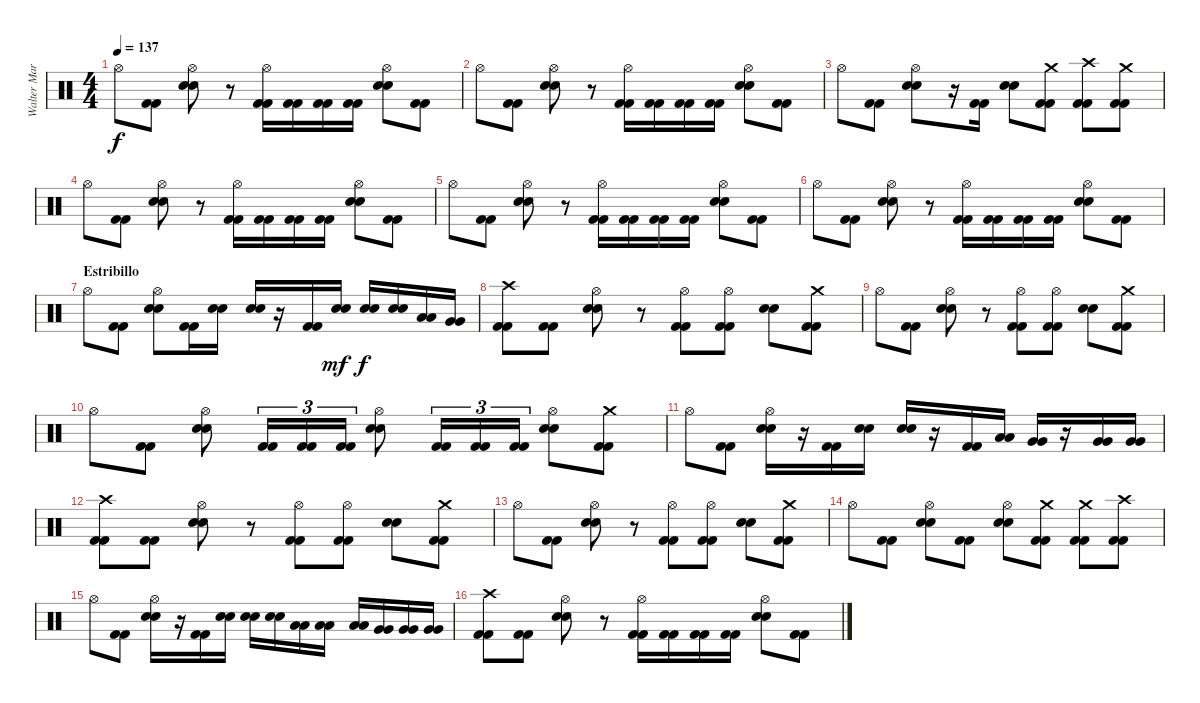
\track ("Walter Martinez (bateria)" "Walter Mar") {instrument percussion}
\staff {score}
\articulation defaults
\ts (4 4)
\tempo 137
\clef neutral
\ks c "Hi-Hat (open)".8{dy f}
("Kick (hit) 2" "Kick (hit) 2").8 ("Hi-Hat (open)" "Snare (hit) 2" "Snare (hit) 2").8 r.8 ("Hi-Hat (open)" "Kick (hit) 2" "Kick (hit) 2").16 ("Kick (hit) 2" "Kick (hit) 2").16 ("Kick (hit) 2" "Kick (hit) 2").16 ("Kick (hit) 2" "Kick (hit) 2").16 ("Hi-Hat (open)" "Snare (hit) 2" "Snare (hit) 2").8 ("Kick (hit) 2" "Kick (hit) 2").8 |
"Hi-Hat (open)".8 ("Kick (hit) 2" "Kick (hit) 2").8 ("Hi-Hat (open)" "Snare (hit) 2" "Snare (hit) 2").8 r.8 ("Hi-Hat (open)" "Kick (hit) 2" "Kick (hit) 2").16 ("Kick (hit) 2" "Kick (hit) 2").16 ("Kick (hit) 2" "Kick (hit) 2").16 ("Kick (hit) 2" "Kick (hit) 2").16 ("Hi-Hat (open)" "Snare (hit) 2" "Snare (hit) 2").8 ("Kick (hit) 2" "Kick (hit) 2").8 |
"Hi-Hat (open)".8 ("Kick (hit) 2" "Kick (hit) 2").8 ("Hi-Hat (open)" "Snare (hit) 2" "Snare (hit) 2").8 r.16 ("Kick (hit) 2" "Kick (hit) 2").16 ("Snare (hit) 2" "Snare (hit) 2").8 ("Crash medium (hit)" "Kick (hit) 2" "Kick (hit) 2").8 ("Crash high (hit)" "Kick (hit) 2" "Kick (hit) 2").8 ("Crash medium (hit)" "Kick (hit) 2" "Kick (hit) 2").8 |
"Hi-Hat (open)".8 ("Kick (hit) 2" "Kick (hit) 2").8 ("Hi-Hat (open)" "Snare (hit) 2" "Snare (hit) 2").8 r.8 ("Hi-Hat (open)" "Kick (hit) 2" "Kick (hit) 2").16 ("Kick (hit) 2" "Kick (hit) 2").16 ("Kick (hit) 2" "Kick (hit) 2").16 ("Kick (hit) 2" "Kick (hit) 2").16 ("Hi-Hat (open)" "Snare (hit) 2" "Snare (hit) 2").8 ("Kick (hit) 2" "Kick (hit) 2").8 |
"Hi-Hat (open)".8 ("Kick (hit) 2" "Kick (hit) 2").8 ("Hi-Hat (open)" "Snare (hit) 2" "Snare (hit) 2").8 r.8 ("Hi-Hat (open)" "Kick (hit) 2" "Kick (hit) 2").16 ("Kick (hit) 2" "Kick (hit) 2").16 ("Kick (hit) 2" "Kick (hit) 2").16 ("Kick (hit) 2" "Kick (hit) 2").16 ("Hi-Hat (open)" "Snare (hit) 2" "Snare (hit) 2").8 ("Kick (hit) 2" "Kick (hit) 2").8 |
"Hi-Hat (open)".8 ("Kick (hit) 2" "Kick (hit) 2").8 ("Hi-Hat (open)" "Snare (hit) 2" "Snare (hit) 2").8 r.8 ("Hi-Hat (open)" "Kick (hit) 2" "Kick (hit) 2").16 ("Kick (hit) 2" "Kick (hit) 2").16 ("Kick (hit) 2" "Kick (hit) 2").16 ("Kick (hit) 2" "Kick (hit) 2").16 ("Hi-Hat (open)" "Snare (hit) 2" "Snare (hit) 2").8 ("Kick (hit) 2" "Kick (hit) 2").8 |
\section ("" "Estribillo")
"Hi-Hat (open)".8 ("Kick (hit) 2" "Kick (hit) 2").8 ("Hi-Hat (open)" "Snare (hit) 2" "Snare (hit) 2").8 ("Kick (hit) 2" "Kick (hit) 2").16 ("Snare (hit) 2" "Snare (hit) 2").16 ("Snare (hit) 2" "Snare (hit) 2").16 r.16 ("Kick (hit) 2" "Kick (hit) 2").16 ("Snare (hit) 2" "Snare (hit) 2").16{dy mf} ("Snare (hit) 2" "Snare (hit) 2").16{dy f} ("Snare (hit) 2" "Snare (hit) 2").16 ("Low Tom (hit)" "Low Tom (hit)").16 ("Very Low Tom (hit)" "Very Low Tom (hit)").16 |
("Crash high (hit)" "Kick (hit) 2" "Kick (hit) 2").8 ("Kick (hit) 2" "Kick (hit) 2").8 ("Hi-Hat (open)" "Snare (hit) 2" "Snare (hit) 2").8 r.8 ("Hi-Hat (open)" "Kick (hit) 2" "Kick (hit) 2").8 ("Hi-Hat (open)" "Kick (hit) 2" "Kick (hit) 2").8 ("Snare (hit) 2" "Snare (hit) 2").8 ("Crash medium (hit)" "Kick (hit) 2" "Kick (hit) 2").8 |
"Hi-Hat (open)".8 ("Kick (hit) 2" "Kick (hit) 2").8 ("Hi-Hat (open)" "Snare (hit) 2" "Snare (hit) 2").8 r.8 ("Hi-Hat (open)" "Kick (hit) 2" "Kick (hit) 2").8 ("Hi-Hat (open)" "Kick (hit) 2" "Kick (hit) 2").8 ("Snare (hit) 2" "Snare (hit) 2").8 ("Crash medium (hit)" "Kick (hit) 2" "Kick (hit) 2").8 |
"Hi-Hat (open)".8 ("Kick (hit) 2" "Kick (hit) 2").8 ("Hi-Hat (open)" "Snare (hit) 2" "Snare (hit) 2").8 ("Kick (hit) 2" "Kick (hit) 2").16{tu (3 2)} ("Kick (hit) 2" "Kick (hit) 2").16{tu (3 2)} ("Kick (hit) 2" "Kick (hit) 2").16{tu (3 2)} ("Hi-Hat (open)" "Snare (hit) 2" "Snare (hit) 2").8 ("Kick (hit) 2" "Kick (hit) 2").16{tu (3 2)} ("Kick (hit) 2" "Kick (hit) 2").16{tu (3 2)} ("Kick (hit) 2" "Kick (hit) 2").16{tu (3 2)} ("Hi-Hat (open)" "Snare (hit) 2" "Snare (hit) 2").8 ("Crash medium (hit)" "Kick (hit) 2" "Kick (hit) 2").8 |
"Hi-Hat (open)".8 ("Kick (hit) 2" "Kick (hit) 2").8 ("Hi-Hat (open)" "Snare (hit) 2" "Snare (hit) 2").16 r.16 ("Kick (hit) 2" "Kick (hit) 2").16 ("Snare (hit) 2" "Snare (hit) 2").16 ("Snare (hit) 2" "Snare (hit) 2").16 r.16 ("Kick (hit) 2" "Kick (hit) 2").16 ("Low Tom (hit)" "Low Tom (hit)").16 ("Very Low Tom (hit)" "Very Low Tom (hit)").16 r.16 ("Very Low Tom (hit)" "Very Low Tom (hit)").16 ("Very Low Tom (hit)" "Very Low Tom (hit)").16 |
("Crash high (hit)" "Kick (hit) 2" "Kick (hit) 2").8 ("Kick (hit) 2" "Kick (hit) 2").8 ("Hi-Hat (open)" "Snare (hit) 2" "Snare (hit) 2").8 r.8 ("Hi-Hat (open)" "Kick (hit) 2" "Kick (hit) 2").8 ("Hi-Hat (open)" "Kick (hit) 2" "Kick (hit) 2").8 ("Snare (hit) 2" "Snare (hit) 2").8 ("Crash medium (hit)" "Kick (hit) 2" "Kick (hit) 2").8 |
"Hi-Hat (open)".8 ("Kick (hit) 2" "Kick (hit) 2").8 ("Hi-Hat (open)" "Snare (hit) 2" "Snare (hit) 2").8 r.8 ("Hi-Hat (open)" "Kick (hit) 2" "Kick (hit) 2").8 ("Hi-Hat (open)" "Kick (hit) 2" "Kick (hit) 2").8 ("Snare (hit) 2" "Snare (hit) 2").8 ("Crash medium (hit)" "Kick (hit) 2" "Kick (hit) 2").8 |
"Hi-Hat (open)".8 ("Kick (hit) 2" "Kick (hit) 2").8 ("Hi-Hat (open)" "Snare (hit) 2" "Snare (hit) 2").8 ("Kick (hit) 2" "Kick (hit) 2").8 ("Hi-Hat (open)" "Snare (hit) 2" "Snare (hit) 2").8 ("Crash medium (hit)" "Kick (hit) 2" "Kick (hit) 2").8 ("Crash medium (hit)" "Kick (hit) 2" "Kick (hit) 2").8 ("Crash high (hit)" "Kick (hit) 2" "Kick (hit) 2").8 |
"Hi-Hat (open)".8 ("Kick (hit) 2" "Kick (hit) 2").8 ("Hi-Hat (open)" "Snare (hit) 2" "Snare (hit) 2").16 r.16 ("Kick (hit) 2" "Kick (hit) 2").16 ("Snare (hit) 2" "Snare (hit) 2").16 ("Snare (hit) 2" "Snare (hit) 2").16 ("Snare (hit) 2" "Snare (hit) 2").16 ("Low Tom (hit)" "Low Tom (hit)").16 ("Low Tom (hit)" "Low Tom (hit)").16 ("Low Tom (hit)" "Low Tom (hit)").16 ("Very Low Tom (hit)" "Very Low Tom (hit)").16 ("Very Low Tom (hit)" "Very Low Tom (hit)").16 ("Very Low Tom (hit)" "Very Low Tom (hit)").16 |
("Crash high (hit)" "Kick (hit) 2" "Kick (hit) 2").8 ("Kick (hit) 2" "Kick (hit) 2").8 ("Hi-Hat (open)" "Snare (hit) 2" "Snare (hit) 2").8 r.8 ("Hi-Hat (open)" "Kick (hit) 2" "Kick (hit) 2").16 ("Kick (hit) 2" "Kick (hit) 2").16 ("Kick (hit) 2" "Kick (hit) 2").16 ("Kick (hit) 2" "Kick (hit) 2").16 ("Hi-Hat (open)" "Snare (hit) 2" "Snare (hit) 2").8 ("Kick (hit) 2" "Kick (hit) 2").8
